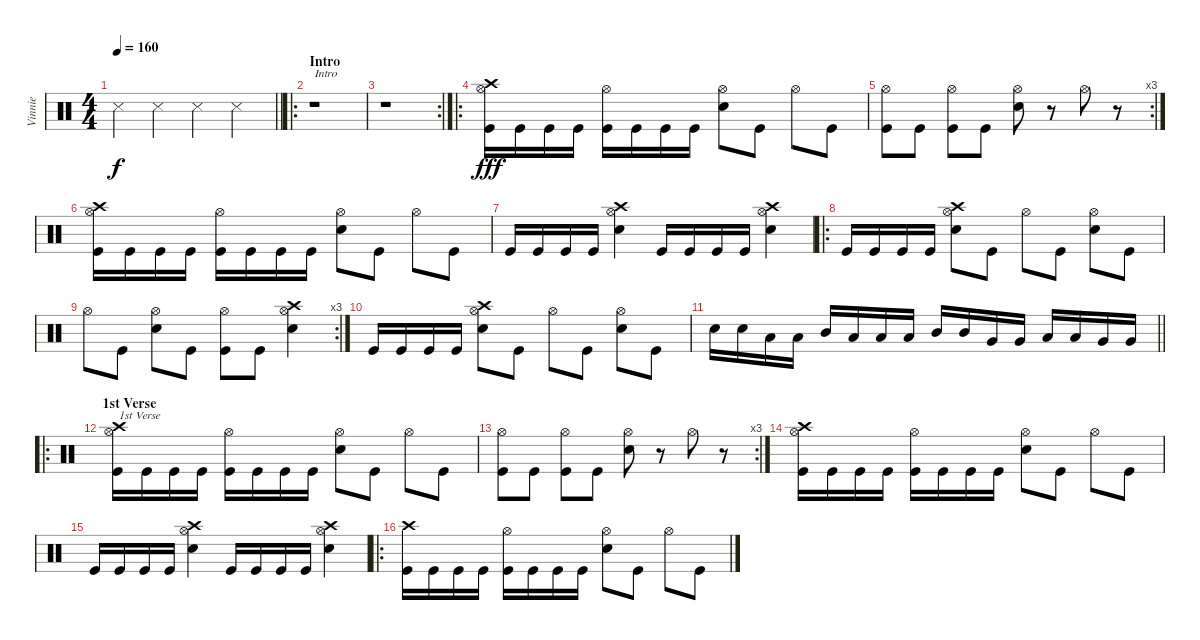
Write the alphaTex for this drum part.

\track ("Vinnie" "Vinnie") {instrument percussion}
\staff {score}
\articulation defaults
\ts (4 4)
\tempo 160
\clef neutral
\barLineRight lightlight
\ks c "Snare (side stick) 3".4{dy f} "Snare (side stick) 3".4 "Snare (side stick) 3".4 "Snare (side stick) 3".4
|
\ro
\section ("" "Intro")
r.1{txt "Intro"} |
\rc 2
r.1 |
\ro
("Kick (hit)" "Crash high (hit)" "Hi-Hat (open)").16{dy fff} "Kick (hit)".16 "Kick (hit)".16 "Kick (hit)".16 ("Kick (hit)" "Hi-Hat (open)").16 "Kick (hit)".16 "Kick (hit)".16 "Kick (hit)".16 ("Electric Snare (hit)" "Hi-Hat (open)").8 "Kick (hit)".8 "Hi-Hat (open)".8 "Kick (hit)".8 |
\rc 3
("Kick (hit)" "Hi-Hat (open)").8 "Kick (hit)".8 ("Kick (hit)" "Hi-Hat (open)").8 "Kick (hit)".8 ("Electric Snare (hit)" "Hi-Hat (open)").8 r.8 "Hi-Hat (open)".8 r.8 |
("Kick (hit)" "Crash high (hit)" "Hi-Hat (open)").16 "Kick (hit)".16 "Kick (hit)".16 "Kick (hit)".16 ("Kick (hit)" "Hi-Hat (open)").16 "Kick (hit)".16 "Kick (hit)".16 "Kick (hit)".16 ("Electric Snare (hit)" "Hi-Hat (open)").8 "Kick (hit)".8 "Hi-Hat (open)".8 "Kick (hit)".8 |
"Kick (hit)".16 "Kick (hit)".16 "Kick (hit)".16 "Kick (hit)".16 ("Electric Snare (hit)" "Crash high (hit)" "Hi-Hat (open)").4 "Kick (hit)".16 "Kick (hit)".16 "Kick (hit)".16 "Kick (hit)".16 ("Electric Snare (hit)" "Crash high (hit)" "Hi-Hat (open)").4 |
\ro "Kick (hit)".16 "Kick (hit)".16 "Kick (hit)".16 "Kick (hit)".16
("Electric Snare (hit)" "Crash high (hit)" "Hi-Hat (open)").8 "Kick (hit)".8 "Hi-Hat (open)".8 "Kick (hit)".8 ("Electric Snare (hit)" "Hi-Hat (open)").8 "Kick (hit)".8 |
\rc 3 "Hi-Hat (open)".8 "Kick (hit)".8
("Electric Snare (hit)" "Hi-Hat (open)").8 "Kick (hit)".8 ("Kick (hit)" "Hi-Hat (open)").8 "Kick (hit)".8 ("Electric Snare (hit)" "Crash high (hit)" "Hi-Hat (open)").4 |
"Kick (hit)".16 "Kick (hit)".16 "Kick (hit)".16 "Kick (hit)".16 ("Electric Snare (hit)" "Crash high (hit)" "Hi-Hat (open)").8 "Kick (hit)".8 "Hi-Hat (open)".8 "Kick (hit)".8 ("Electric Snare (hit)" "Hi-Hat (open)").8 "Kick (hit)".8 |
\barLineRight lightlight "Electric Snare (hit)".16 "Electric Snare (hit)".16 "Low Tom (hit)".16 "Low Tom (hit)".16 "Mid Tom (hit)".16 "Low Tom (hit)".16 "Low Tom (hit)".16 "Low Tom (hit)".16 "Mid Tom (hit)".16 "Mid Tom (hit)".16 "Very Low Tom (hit)".16 "Very Low Tom (hit)".16 "Low Tom (hit)".16 "Low Tom (hit)".16 "Very Low Tom (hit)".16 "Very Low Tom (hit)".16
|
\ro
\section ("" "1st Verse")
("Kick (hit)" "Crash high (hit)" "Hi-Hat (open)").16{txt "1st Verse"} "Kick (hit)".16 "Kick (hit)".16 "Kick (hit)".16 ("Kick (hit)" "Hi-Hat (open)").16 "Kick (hit)".16 "Kick (hit)".16 "Kick (hit)".16 ("Electric Snare (hit)" "Hi-Hat (open)").8 "Kick (hit)".8 "Hi-Hat (open)".8 "Kick (hit)".8 |
\rc 3
("Kick (hit)" "Hi-Hat (open)").8 "Kick (hit)".8 ("Kick (hit)" "Hi-Hat (open)").8 "Kick (hit)".8 ("Electric Snare (hit)" "Hi-Hat (open)").8 r.8 "Hi-Hat (open)".8 r.8 |
("Kick (hit)" "Crash high (hit)" "Hi-Hat (open)").16 "Kick (hit)".16 "Kick (hit)".16 "Kick (hit)".16 ("Kick (hit)" "Hi-Hat (open)").16 "Kick (hit)".16 "Kick (hit)".16 "Kick (hit)".16 ("Electric Snare (hit)" "Hi-Hat (open)").8 "Kick (hit)".8 "Hi-Hat (open)".8 "Kick (hit)".8 |
"Kick (hit)".16 "Kick (hit)".16 "Kick (hit)".16 "Kick (hit)".16 ("Electric Snare (hit)" "Crash high (hit)" "Hi-Hat (open)").4 "Kick (hit)".16 "Kick (hit)".16 "Kick (hit)".16 "Kick (hit)".16 ("Electric Snare (hit)" "Crash high (hit)" "Hi-Hat (open)").4 |
\ro
("Kick (hit)" "Crash high (hit)").16 "Kick (hit)".16 "Kick (hit)".16 "Kick (hit)".16 ("Kick (hit)" "Hi-Hat (open)").16 "Kick (hit)".16 "Kick (hit)".16 "Kick (hit)".16 ("Electric Snare (hit)" "Hi-Hat (open)").8 "Kick (hit)".8 "Hi-Hat (open)".8 "Kick (hit)".8
